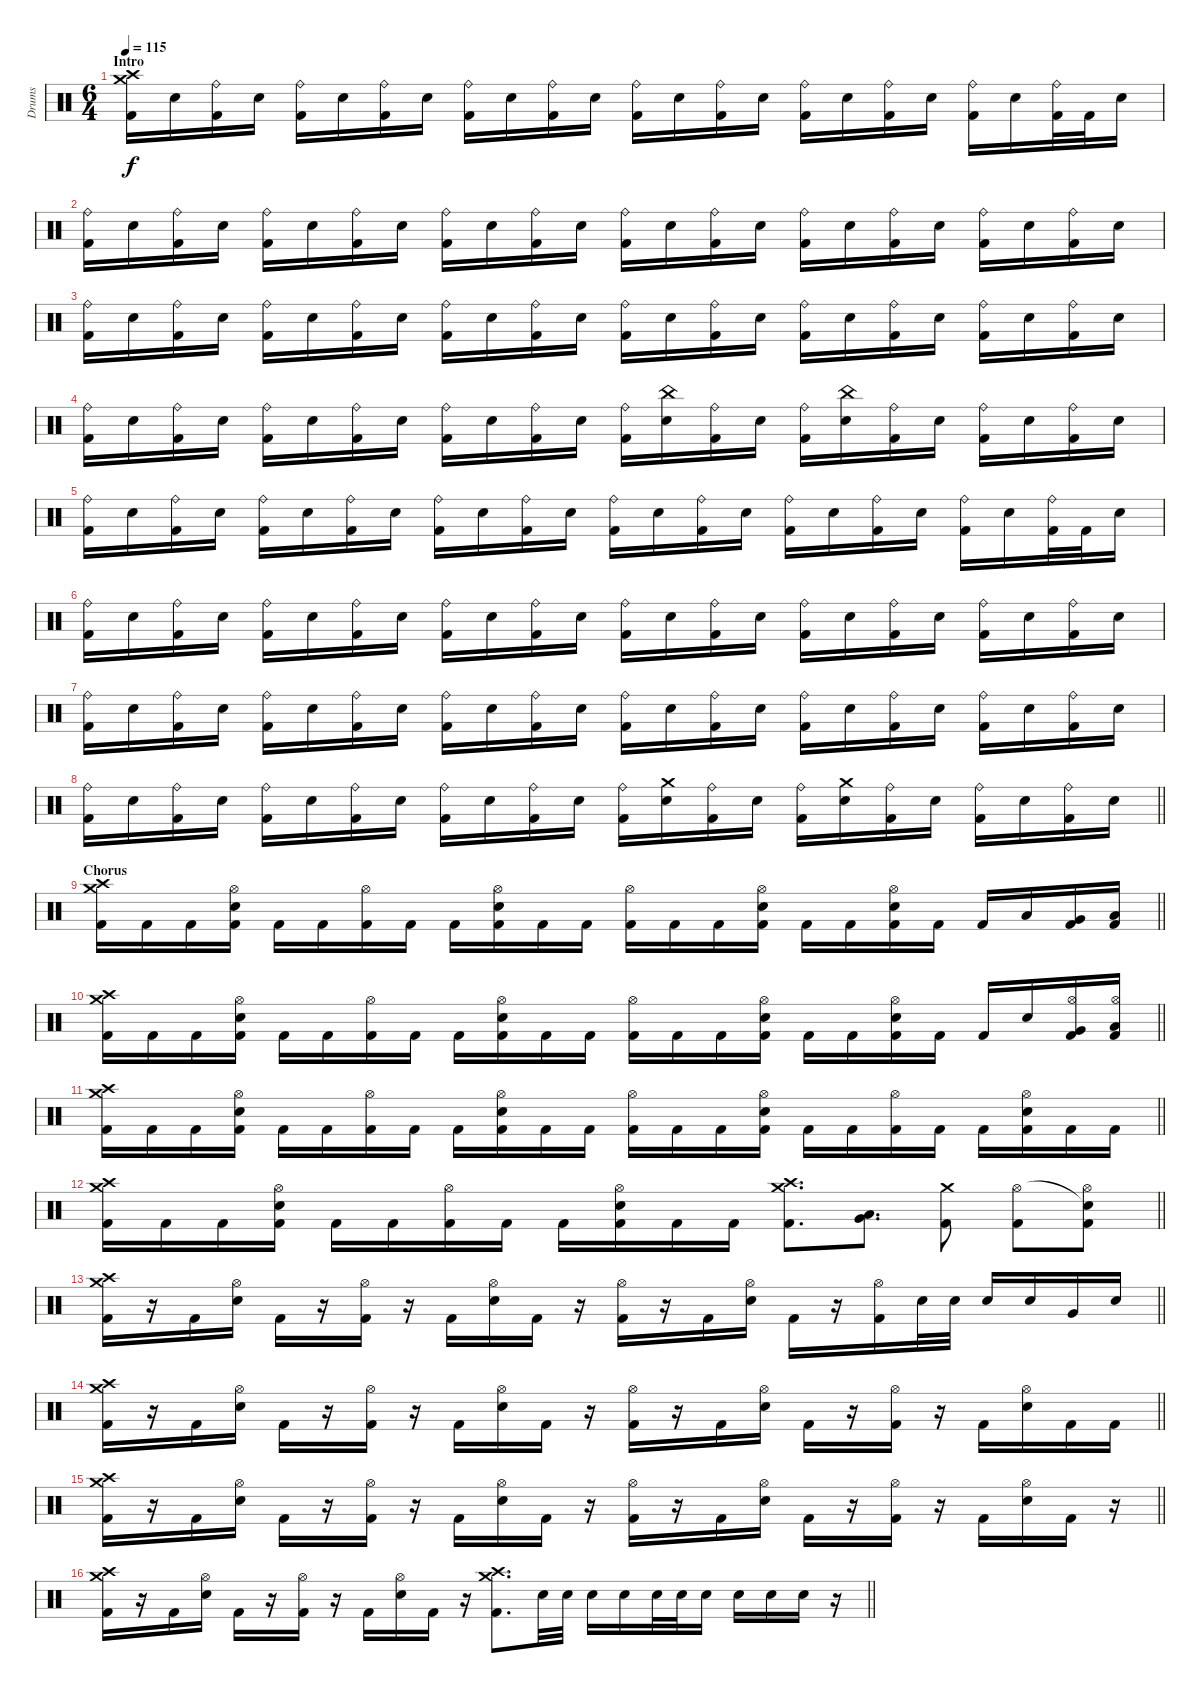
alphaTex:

\track ("Drums" "Drums") {instrument percussion}
\staff {score}
\articulation defaults
\ts (6 4)
\section ("" "Intro")
\tempo 115
\clef neutral
\ks c
("Crash medium (hit)" "Crash high (hit)" "Kick (hit) 2").16{dy f} "Snare (hit) 2".16 ("Ride (bell)" "Kick (hit) 2").16 "Snare (hit) 2".16 ("Ride (bell)" "Kick (hit) 2").16 "Snare (hit) 2".16 ("Ride (bell)" "Kick (hit) 2").16 "Snare (hit) 2".16 ("Ride (bell)" "Kick (hit) 2").16 "Snare (hit) 2".16 ("Ride (bell)" "Kick (hit) 2").16 "Snare (hit) 2".16 ("Ride (bell)" "Kick (hit) 2").16 "Snare (hit) 2".16 ("Ride (bell)" "Kick (hit) 2").16 "Snare (hit) 2".16 ("Ride (bell)" "Kick (hit) 2").16 "Snare (hit) 2".16 ("Ride (bell)" "Kick (hit) 2").16 "Snare (hit) 2".16 ("Ride (bell)" "Kick (hit) 2").16 "Snare (hit) 2".16 ("Ride (bell)" "Kick (hit) 2").32 "Kick (hit) 2".32 "Snare (hit) 2".16 |
("Ride (bell)" "Kick (hit) 2").16 "Snare (hit) 2".16 ("Ride (bell)" "Kick (hit) 2").16 "Snare (hit) 2".16 ("Ride (bell)" "Kick (hit) 2").16 "Snare (hit) 2".16 ("Ride (bell)" "Kick (hit) 2").16 "Snare (hit) 2".16 ("Ride (bell)" "Kick (hit) 2").16 "Snare (hit) 2".16 ("Ride (bell)" "Kick (hit) 2").16 "Snare (hit) 2".16 ("Ride (bell)" "Kick (hit) 2").16 "Snare (hit) 2".16 ("Ride (bell)" "Kick (hit) 2").16 "Snare (hit) 2".16 ("Ride (bell)" "Kick (hit) 2").16 "Snare (hit) 2".16 ("Ride (bell)" "Kick (hit) 2").16 "Snare (hit) 2".16 ("Ride (bell)" "Kick (hit) 2").16 "Snare (hit) 2".16 ("Ride (bell)" "Kick (hit) 2").16 "Snare (hit) 2".16 |
("Ride (bell)" "Kick (hit) 2").16 "Snare (hit) 2".16 ("Ride (bell)" "Kick (hit) 2").16 "Snare (hit) 2".16 ("Ride (bell)" "Kick (hit) 2").16 "Snare (hit) 2".16 ("Ride (bell)" "Kick (hit) 2").16 "Snare (hit) 2".16 ("Ride (bell)" "Kick (hit) 2").16 "Snare (hit) 2".16 ("Ride (bell)" "Kick (hit) 2").16 "Snare (hit) 2".16 ("Ride (bell)" "Kick (hit) 2").16 "Snare (hit) 2".16 ("Ride (bell)" "Kick (hit) 2").16 "Snare (hit) 2".16 ("Ride (bell)" "Kick (hit) 2").16 "Snare (hit) 2".16 ("Ride (bell)" "Kick (hit) 2").16 "Snare (hit) 2".16 ("Ride (bell)" "Kick (hit) 2").16 "Snare (hit) 2".16 ("Ride (bell)" "Kick (hit) 2").16 "Snare (hit) 2".16 |
("Ride (bell)" "Kick (hit) 2").16 "Snare (hit) 2".16 ("Ride (bell)" "Kick (hit) 2").16 "Snare (hit) 2".16 ("Ride (bell)" "Kick (hit) 2").16 "Snare (hit) 2".16 ("Ride (bell)" "Kick (hit) 2").16 "Snare (hit) 2".16 ("Ride (bell)" "Kick (hit) 2").16 "Snare (hit) 2".16 ("Ride (bell)" "Kick (hit) 2").16 "Snare (hit) 2".16 ("Ride (bell)" "Kick (hit) 2").16 ("China (hit)" "Snare (hit) 2").16 ("Ride (bell)" "Kick (hit) 2").16 "Snare (hit) 2".16 ("Ride (bell)" "Kick (hit) 2").16 ("China (hit)" "Snare (hit) 2").16 ("Ride (bell)" "Kick (hit) 2").16 "Snare (hit) 2".16 ("Ride (bell)" "Kick (hit) 2").16 "Snare (hit) 2".16 ("Ride (bell)" "Kick (hit) 2").16 "Snare (hit) 2".16 |
("Ride (bell)" "Kick (hit) 2").16 "Snare (hit) 2".16 ("Ride (bell)" "Kick (hit) 2").16 "Snare (hit) 2".16 ("Ride (bell)" "Kick (hit) 2").16 "Snare (hit) 2".16 ("Ride (bell)" "Kick (hit) 2").16 "Snare (hit) 2".16 ("Ride (bell)" "Kick (hit) 2").16 "Snare (hit) 2".16 ("Ride (bell)" "Kick (hit) 2").16 "Snare (hit) 2".16 ("Ride (bell)" "Kick (hit) 2").16 "Snare (hit) 2".16 ("Ride (bell)" "Kick (hit) 2").16 "Snare (hit) 2".16 ("Ride (bell)" "Kick (hit) 2").16 "Snare (hit) 2".16 ("Ride (bell)" "Kick (hit) 2").16 "Snare (hit) 2".16 ("Ride (bell)" "Kick (hit) 2").16 "Snare (hit) 2".16 ("Ride (bell)" "Kick (hit) 2").32 "Kick (hit) 2".32 "Snare (hit) 2".16 |
("Ride (bell)" "Kick (hit) 2").16 "Snare (hit) 2".16 ("Ride (bell)" "Kick (hit) 2").16 "Snare (hit) 2".16 ("Ride (bell)" "Kick (hit) 2").16 "Snare (hit) 2".16 ("Ride (bell)" "Kick (hit) 2").16 "Snare (hit) 2".16 ("Ride (bell)" "Kick (hit) 2").16 "Snare (hit) 2".16 ("Ride (bell)" "Kick (hit) 2").16 "Snare (hit) 2".16 ("Ride (bell)" "Kick (hit) 2").16 "Snare (hit) 2".16 ("Ride (bell)" "Kick (hit) 2").16 "Snare (hit) 2".16 ("Ride (bell)" "Kick (hit) 2").16 "Snare (hit) 2".16 ("Ride (bell)" "Kick (hit) 2").16 "Snare (hit) 2".16 ("Ride (bell)" "Kick (hit) 2").16 "Snare (hit) 2".16 ("Ride (bell)" "Kick (hit) 2").16 "Snare (hit) 2".16 |
("Ride (bell)" "Kick (hit) 2").16 "Snare (hit) 2".16 ("Ride (bell)" "Kick (hit) 2").16 "Snare (hit) 2".16 ("Ride (bell)" "Kick (hit) 2").16 "Snare (hit) 2".16 ("Ride (bell)" "Kick (hit) 2").16 "Snare (hit) 2".16 ("Ride (bell)" "Kick (hit) 2").16 "Snare (hit) 2".16 ("Ride (bell)" "Kick (hit) 2").16 "Snare (hit) 2".16 ("Ride (bell)" "Kick (hit) 2").16 "Snare (hit) 2".16 ("Ride (bell)" "Kick (hit) 2").16 "Snare (hit) 2".16 ("Ride (bell)" "Kick (hit) 2").16 "Snare (hit) 2".16 ("Ride (bell)" "Kick (hit) 2").16 "Snare (hit) 2".16 ("Ride (bell)" "Kick (hit) 2").16 "Snare (hit) 2".16 ("Ride (bell)" "Kick (hit) 2").16 "Snare (hit) 2".16 |
\barLineRight lightlight
("Ride (bell)" "Kick (hit) 2").16 "Snare (hit) 2".16 ("Ride (bell)" "Kick (hit) 2").16 "Snare (hit) 2".16 ("Ride (bell)" "Kick (hit) 2").16 "Snare (hit) 2".16 ("Ride (bell)" "Kick (hit) 2").16 "Snare (hit) 2".16 ("Ride (bell)" "Kick (hit) 2").16 "Snare (hit) 2".16 ("Ride (bell)" "Kick (hit) 2").16 "Snare (hit) 2".16 ("Ride (bell)" "Kick (hit) 2").16 ("Crash medium (hit)" "Snare (hit) 2").16 ("Ride (bell)" "Kick (hit) 2").16 "Snare (hit) 2".16 ("Ride (bell)" "Kick (hit) 2").16 ("Crash medium (hit)" "Snare (hit) 2").16 ("Ride (bell)" "Kick (hit) 2").16 "Snare (hit) 2".16 ("Ride (bell)" "Kick (hit) 2").16 "Snare (hit) 2".16 ("Ride (bell)" "Kick (hit) 2").16 "Snare (hit) 2".16 |
\section ("" "Chorus")
\barLineRight lightlight
("Crash medium (hit)" "Crash high (hit)" "Kick (hit) 2").16 "Kick (hit) 2".16 "Kick (hit) 2".16 ("Hi-Hat (open)" "Snare (hit) 2" "Kick (hit) 2").16 "Kick (hit) 2".16 "Kick (hit) 2".16 ("Hi-Hat (open)" "Kick (hit) 2").16 "Kick (hit) 2".16 "Kick (hit) 2".16 ("Hi-Hat (open)" "Snare (hit) 2" "Kick (hit) 2").16 "Kick (hit) 2".16 "Kick (hit) 2".16 ("Hi-Hat (open)" "Kick (hit) 2").16 "Kick (hit) 2".16 "Kick (hit) 2".16 ("Hi-Hat (open)" "Snare (hit) 2" "Kick (hit) 2").16 "Kick (hit) 2".16 "Kick (hit) 2".16 ("Hi-Hat (open)" "Snare (hit) 2" "Kick (hit) 2").16 "Kick (hit) 2".16 "Kick (hit) 2".16 "Low Tom (hit)".16 ("Very Low Tom (hit)" "Kick (hit) 2").16 ("Low Floor Tom (hit)" "Kick (hit) 2").16 |
\barLineRight lightlight
("Crash medium (hit)" "Crash high (hit)" "Kick (hit) 2").16 "Kick (hit) 2".16 "Kick (hit) 2".16 ("Hi-Hat (open)" "Snare (hit) 2" "Kick (hit) 2").16 "Kick (hit) 2".16 "Kick (hit) 2".16 ("Hi-Hat (open)" "Kick (hit) 2").16 "Kick (hit) 2".16 "Kick (hit) 2".16 ("Hi-Hat (open)" "Snare (hit) 2" "Kick (hit) 2").16 "Kick (hit) 2".16 "Kick (hit) 2".16 ("Hi-Hat (open)" "Kick (hit) 2").16 "Kick (hit) 2".16 "Kick (hit) 2".16 ("Hi-Hat (open)" "Snare (hit) 2" "Kick (hit) 2").16 "Kick (hit) 2".16 "Kick (hit) 2".16 ("Hi-Hat (open)" "Snare (hit) 2" "Kick (hit) 2").16 "Kick (hit) 2".16 "Kick (hit) 2".16 "Snare (hit) 2".16 ("Hi-Hat (open)" "Very Low Tom (hit)" "Kick (hit) 2").16 ("Hi-Hat (open)" "Low Floor Tom (hit)" "Kick (hit) 2").16 |
\barLineRight lightlight
("Crash medium (hit)" "Crash high (hit)" "Kick (hit) 2").16 "Kick (hit) 2".16 "Kick (hit) 2".16 ("Hi-Hat (open)" "Snare (hit) 2" "Kick (hit) 2").16 "Kick (hit) 2".16 "Kick (hit) 2".16 ("Hi-Hat (open)" "Kick (hit) 2").16 "Kick (hit) 2".16 "Kick (hit) 2".16 ("Hi-Hat (open)" "Snare (hit) 2" "Kick (hit) 2").16 "Kick (hit) 2".16 "Kick (hit) 2".16 ("Hi-Hat (open)" "Kick (hit) 2").16 "Kick (hit) 2".16 "Kick (hit) 2".16 ("Hi-Hat (open)" "Snare (hit) 2" "Kick (hit) 2").16 "Kick (hit) 2".16 "Kick (hit) 2".16 ("Hi-Hat (open)" "Kick (hit) 2").16 "Kick (hit) 2".16 "Kick (hit) 2".16 ("Hi-Hat (open)" "Snare (hit) 2" "Kick (hit) 2").16 "Kick (hit) 2".16 "Kick (hit) 2".16 |
\barLineRight lightlight
("Crash medium (hit)" "Crash high (hit)" "Kick (hit) 2").16 "Kick (hit) 2".16 "Kick (hit) 2".16 ("Hi-Hat (open)" "Snare (hit) 2" "Kick (hit) 2").16 "Kick (hit) 2".16 "Kick (hit) 2".16 ("Hi-Hat (open)" "Kick (hit) 2").16 "Kick (hit) 2".16 "Kick (hit) 2".16 ("Hi-Hat (open)" "Snare (hit) 2" "Kick (hit) 2").16 "Kick (hit) 2".16 "Kick (hit) 2".16 ("Crash medium (hit)" "Crash high (hit)" "Kick (hit) 2").8{d} ("Very Low Tom (hit)" "Low Floor Tom (hit)").8{d} ("Crash medium (hit)" "Kick (hit) 2").8 ("Hi-Hat (open)" "Kick (hit) 2").8 ("Snare (hit)"{t} "Hi-Hat (open)" "Kick (hit) 2").8 |
\barLineRight lightlight
("Crash medium (hit)" "Crash high (hit)" "Kick (hit) 2").16 r.16 "Kick (hit) 2".16 ("Hi-Hat (open)" "Snare (hit) 2").16 "Kick (hit) 2".16 r.16 ("Hi-Hat (open)" "Kick (hit) 2").16 r.16 "Kick (hit) 2".16 ("Hi-Hat (open)" "Snare (hit) 2").16 "Kick (hit) 2".16 r.16 ("Hi-Hat (open)" "Kick (hit) 2").16 r.16 "Kick (hit) 2".16 ("Hi-Hat (open)" "Snare (hit) 2").16 "Kick (hit) 2".16 r.16 ("Hi-Hat (open)" "Kick (hit) 2").16 "Snare (hit) 2".32 "Snare (hit) 2".32 "Snare (hit) 2".16 "Snare (hit) 2".16 "Very Low Tom (hit)".16 "Snare (hit) 2".16 |
\barLineRight lightlight
("Crash medium (hit)" "Crash high (hit)" "Kick (hit) 2").16 r.16 "Kick (hit) 2".16 ("Hi-Hat (open)" "Snare (hit) 2").16 "Kick (hit) 2".16 r.16 ("Hi-Hat (open)" "Kick (hit) 2").16 r.16 "Kick (hit) 2".16 ("Hi-Hat (open)" "Snare (hit) 2").16 "Kick (hit) 2".16 r.16 ("Hi-Hat (open)" "Kick (hit) 2").16 r.16 "Kick (hit) 2".16 ("Hi-Hat (open)" "Snare (hit) 2").16 "Kick (hit) 2".16 r.16 ("Hi-Hat (open)" "Kick (hit) 2").16 r.16 "Kick (hit) 2".16 ("Hi-Hat (open)" "Snare (hit) 2").16 "Kick (hit) 2".16 "Kick (hit) 2".16 |
\barLineRight lightlight
("Crash medium (hit)" "Crash high (hit)" "Kick (hit) 2").16 r.16 "Kick (hit) 2".16 ("Hi-Hat (open)" "Snare (hit) 2").16 "Kick (hit) 2".16 r.16 ("Hi-Hat (open)" "Kick (hit) 2").16 r.16 "Kick (hit) 2".16 ("Hi-Hat (open)" "Snare (hit) 2").16 "Kick (hit) 2".16 r.16 ("Hi-Hat (open)" "Kick (hit) 2").16 r.16 "Kick (hit) 2".16 ("Hi-Hat (open)" "Snare (hit) 2").16 "Kick (hit) 2".16 r.16 ("Hi-Hat (open)" "Kick (hit) 2").16 r.16 "Kick (hit) 2".16 ("Hi-Hat (open)" "Snare (hit) 2").16 "Kick (hit) 2".16 r.16 |
\barLineRight lightlight
("Crash medium (hit)" "Crash high (hit)" "Kick (hit) 2").16 r.16 "Kick (hit) 2".16 ("Hi-Hat (open)" "Snare (hit) 2").16 "Kick (hit) 2".16 r.16 ("Hi-Hat (open)" "Kick (hit) 2").16 r.16 "Kick (hit) 2".16 ("Hi-Hat (open)" "Snare (hit) 2").16 "Kick (hit) 2".16 r.16 ("Crash medium (hit)" "Crash high (hit)" "Kick (hit) 2").8{d} "Snare (hit) 2".32 "Snare (hit) 2".32 "Snare (hit) 2".16 "Snare (hit) 2".16 "Snare (hit) 2".32 "Snare (hit) 2".32 "Snare (hit) 2".16 "Snare (hit) 2".16 "Snare (hit) 2".16 "Snare (hit) 2".16 r.16
